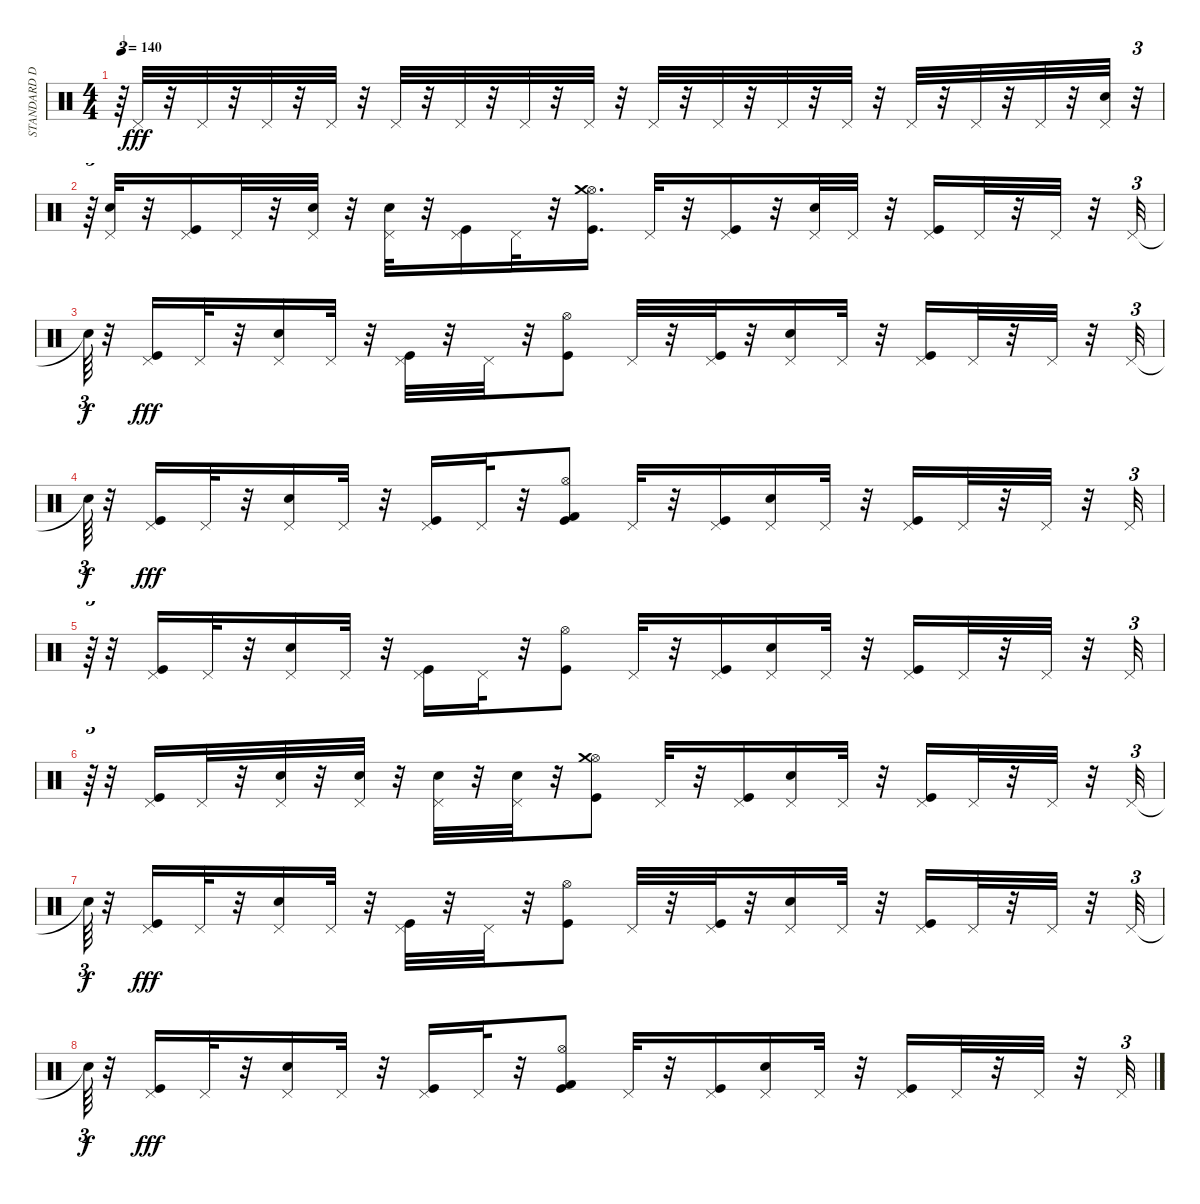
\track ("STANDARD DRUMS" "STANDARD D") {instrument percussion}
\staff {score}
\articulation defaults
\ts (4 4)
\tempo 140
\clef neutral
\ks c
r.64{tu (3 2) dy fff} "Pedal Hi-Hat (hit)".32 r.32 "Pedal Hi-Hat (hit)".32 r.32 "Pedal Hi-Hat (hit)".32 r.32 "Pedal Hi-Hat (hit)".32 r.32 "Pedal Hi-Hat (hit)".32 r.32 "Pedal Hi-Hat (hit)".32 r.32 "Pedal Hi-Hat (hit)".32 r.32 "Pedal Hi-Hat (hit)".32 r.32 "Pedal Hi-Hat (hit)".32 r.32 "Pedal Hi-Hat (hit)".32 r.32 "Pedal Hi-Hat (hit)".32 r.32 "Pedal Hi-Hat (hit)".32 r.32 "Pedal Hi-Hat (hit)".32 r.32 "Pedal Hi-Hat (hit)".32 r.32 "Pedal Hi-Hat (hit)".32 r.32 ("Snare (hit) 2" "Pedal Hi-Hat (hit)").32 r.32{tu (3 2)} |
r.64{tu (3 2)} ("Snare (hit) 2" "Pedal Hi-Hat (hit)").32 r.32 ("Kick (hit)" "Pedal Hi-Hat (hit)").16 "Pedal Hi-Hat (hit)".32 r.32 ("Snare (hit) 2" "Pedal Hi-Hat (hit)").32 r.32 ("Snare (hit) 2" "Pedal Hi-Hat (hit)").32 r.32 ("Kick (hit)" "Pedal Hi-Hat (hit)").16 "Pedal Hi-Hat (hit)".32 r.32 ("Kick (hit)" "Hi-Hat (open)" "Crash medium (hit)").16{d} "Pedal Hi-Hat (hit)".32 r.32 ("Kick (hit)" "Pedal Hi-Hat (hit)").16 r.32 ("Snare (hit) 2" "Pedal Hi-Hat (hit)").32 "Pedal Hi-Hat (hit)".32 r.32 ("Kick (hit)" "Pedal Hi-Hat (hit)").16 "Pedal Hi-Hat (hit)".32 r.32 "Pedal Hi-Hat (hit)".32 r.32 "Pedal Hi-Hat (hit)".32{tu (3 2)} |
"Snare (hit)"{t}.64{tu (3 2) dy f} r.32 ("Kick (hit)" "Pedal Hi-Hat (hit)").16{dy fff} "Pedal Hi-Hat (hit)".32 r.32 ("Snare (hit) 2" "Pedal Hi-Hat (hit)").16 "Pedal Hi-Hat (hit)".32 r.32 ("Kick (hit)" "Pedal Hi-Hat (hit)").32 r.32 "Pedal Hi-Hat (hit)".32 r.32 ("Kick (hit)" "Hi-Hat (open)").8 "Pedal Hi-Hat (hit)".32 r.32 ("Kick (hit)" "Pedal Hi-Hat (hit)").32 r.32 ("Snare (hit) 2" "Pedal Hi-Hat (hit)").16 "Pedal Hi-Hat (hit)".32 r.32 ("Kick (hit)" "Pedal Hi-Hat (hit)").16 "Pedal Hi-Hat (hit)".32 r.32 "Pedal Hi-Hat (hit)".32 r.32 "Pedal Hi-Hat (hit)".32{tu (3 2)} |
"Snare (hit)"{t}.64{tu (3 2) dy f} r.32 ("Kick (hit)" "Pedal Hi-Hat (hit)").16{dy fff} "Pedal Hi-Hat (hit)".32 r.32 ("Snare (hit) 2" "Pedal Hi-Hat (hit)").16 "Pedal Hi-Hat (hit)".32 r.32 ("Kick (hit)" "Pedal Hi-Hat (hit)").16 "Pedal Hi-Hat (hit)".32 r.32 ("Kick (hit)" "Kick (hit) 2" "Hi-Hat (open)").8 "Pedal Hi-Hat (hit)".32 r.32 ("Kick (hit)" "Pedal Hi-Hat (hit)").16 ("Snare (hit) 2" "Pedal Hi-Hat (hit)").16 "Pedal Hi-Hat (hit)".32 r.32 ("Kick (hit)" "Pedal Hi-Hat (hit)").16 "Pedal Hi-Hat (hit)".32 r.32 "Pedal Hi-Hat (hit)".32 r.32 "Pedal Hi-Hat (hit)".32{tu (3 2)} |
r.64{tu (3 2)} r.32 ("Kick (hit)" "Pedal Hi-Hat (hit)").16 "Pedal Hi-Hat (hit)".32 r.32 ("Snare (hit) 2" "Pedal Hi-Hat (hit)").16 "Pedal Hi-Hat (hit)".32 r.32 ("Kick (hit)" "Pedal Hi-Hat (hit)").16 "Pedal Hi-Hat (hit)".32 r.32 ("Kick (hit)" "Hi-Hat (open)").8 "Pedal Hi-Hat (hit)".32 r.32 ("Kick (hit)" "Pedal Hi-Hat (hit)").16 ("Snare (hit) 2" "Pedal Hi-Hat (hit)").16 "Pedal Hi-Hat (hit)".32 r.32 ("Kick (hit)" "Pedal Hi-Hat (hit)").16 "Pedal Hi-Hat (hit)".32 r.32 "Pedal Hi-Hat (hit)".32 r.32 "Pedal Hi-Hat (hit)".32{tu (3 2)} |
r.64{tu (3 2)} r.32 ("Kick (hit)" "Pedal Hi-Hat (hit)").16 "Pedal Hi-Hat (hit)".32 r.32 ("Snare (hit) 2" "Pedal Hi-Hat (hit)").32 r.32 ("Snare (hit) 2" "Pedal Hi-Hat (hit)").32 r.32 ("Snare (hit) 2" "Pedal Hi-Hat (hit)").32 r.32 ("Snare (hit) 2" "Pedal Hi-Hat (hit)").32 r.32 ("Kick (hit)" "Hi-Hat (open)" "Crash medium (hit)").8 "Pedal Hi-Hat (hit)".32 r.32 ("Kick (hit)" "Pedal Hi-Hat (hit)").16 ("Snare (hit) 2" "Pedal Hi-Hat (hit)").16 "Pedal Hi-Hat (hit)".32 r.32 ("Kick (hit)" "Pedal Hi-Hat (hit)").16 "Pedal Hi-Hat (hit)".32 r.32 "Pedal Hi-Hat (hit)".32 r.32 "Pedal Hi-Hat (hit)".32{tu (3 2)} |
"Snare (hit)"{t}.64{tu (3 2) dy f} r.32 ("Kick (hit)" "Pedal Hi-Hat (hit)").16{dy fff} "Pedal Hi-Hat (hit)".32 r.32 ("Snare (hit) 2" "Pedal Hi-Hat (hit)").16 "Pedal Hi-Hat (hit)".32 r.32 ("Kick (hit)" "Pedal Hi-Hat (hit)").32 r.32 "Pedal Hi-Hat (hit)".32 r.32 ("Kick (hit)" "Hi-Hat (open)").8 "Pedal Hi-Hat (hit)".32 r.32 ("Kick (hit)" "Pedal Hi-Hat (hit)").32 r.32 ("Snare (hit) 2" "Pedal Hi-Hat (hit)").16 "Pedal Hi-Hat (hit)".32 r.32 ("Kick (hit)" "Pedal Hi-Hat (hit)").16 "Pedal Hi-Hat (hit)".32 r.32 "Pedal Hi-Hat (hit)".32 r.32 "Pedal Hi-Hat (hit)".32{tu (3 2)} |
"Snare (hit)"{t}.64{tu (3 2) dy f} r.32 ("Kick (hit)" "Pedal Hi-Hat (hit)").16{dy fff} "Pedal Hi-Hat (hit)".32 r.32 ("Snare (hit) 2" "Pedal Hi-Hat (hit)").16 "Pedal Hi-Hat (hit)".32 r.32 ("Kick (hit)" "Pedal Hi-Hat (hit)").16 "Pedal Hi-Hat (hit)".32 r.32 ("Kick (hit)" "Kick (hit) 2" "Hi-Hat (open)").8 "Pedal Hi-Hat (hit)".32 r.32 ("Kick (hit)" "Pedal Hi-Hat (hit)").16 ("Snare (hit) 2" "Pedal Hi-Hat (hit)").16 "Pedal Hi-Hat (hit)".32 r.32 ("Kick (hit)" "Pedal Hi-Hat (hit)").16 "Pedal Hi-Hat (hit)".32 r.32 "Pedal Hi-Hat (hit)".32 r.32 "Pedal Hi-Hat (hit)".32{tu (3 2)}
